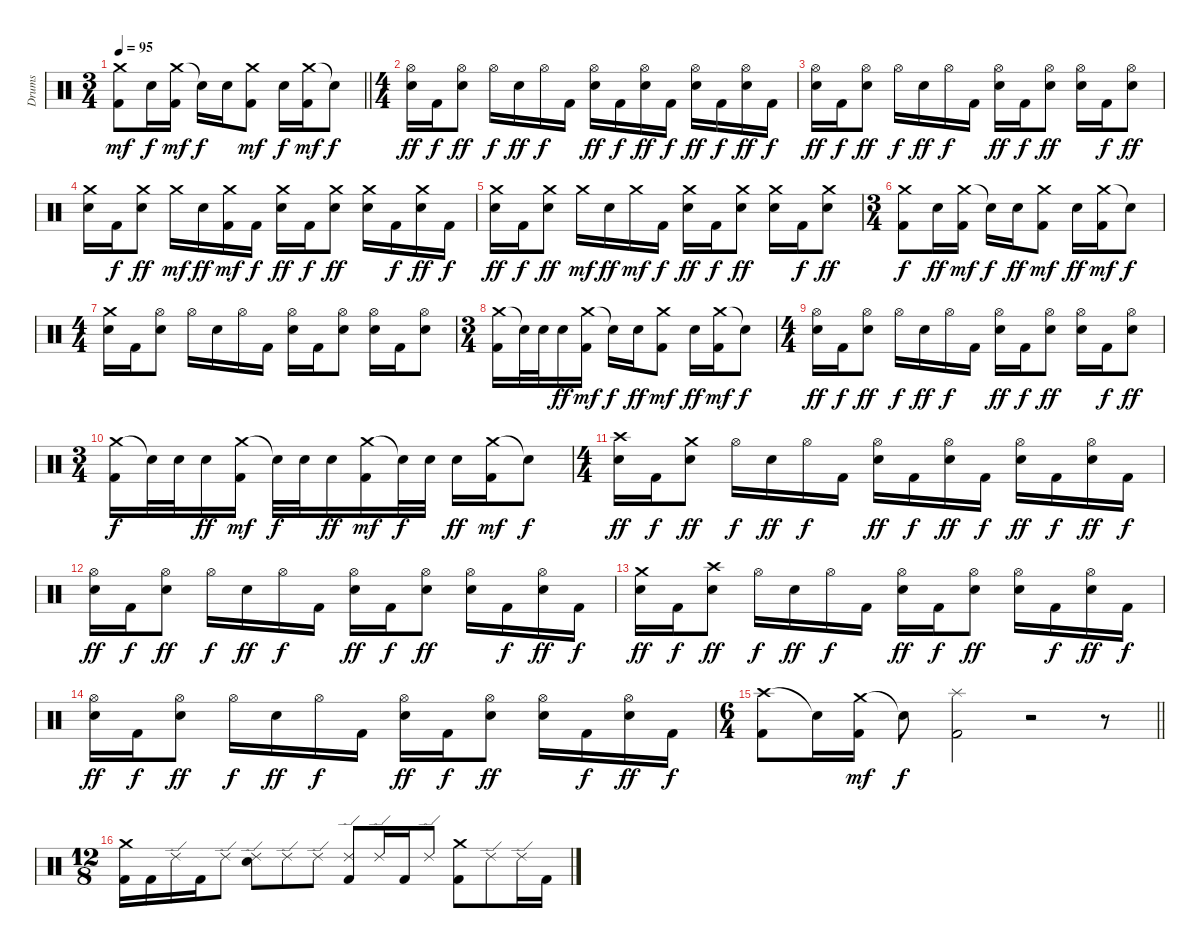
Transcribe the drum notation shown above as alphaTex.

\track ("Drums" "Drums") {instrument percussion}
\staff {score}
\articulation defaults
\ts (3 4)
\tempo 95
\clef neutral
\barLineRight lightlight
\ks c
("Crash medium (hit)" "Kick (hit) 2").8{dy mf} "Snare (hit) 2".16{dy f} ("Crash medium (hit)" "Kick (hit) 2").16{dy mf} "Snare (hit)"{t}.16{dy f} "Snare (hit) 2".16 ("Crash medium (hit)" "Kick (hit) 2").8{dy mf} "Snare (hit) 2".16{dy f} ("Crash medium (hit)" "Kick (hit) 2").16{dy mf} "Snare (hit)"{t}.8{dy f} |
\ts (4 4)
\section ("" "")
("Hi-Hat (open)" "Snare (hit) 2").16{dy ff} "Kick (hit) 2".16{dy f} ("Hi-Hat (open)" "Snare (hit) 2").8{dy ff} "Hi-Hat (open)".16{dy f} "Snare (hit) 2".16{dy ff} "Hi-Hat (open)".16{dy f} "Kick (hit) 2".16 ("Hi-Hat (open)" "Snare (hit) 2").16{dy ff} "Kick (hit) 2".16{dy f} ("Hi-Hat (open)" "Snare (hit) 2").16{dy ff} "Kick (hit) 2".16{dy f} ("Hi-Hat (open)" "Snare (hit) 2").16{dy ff} "Kick (hit) 2".16{dy f} ("Hi-Hat (open)" "Snare (hit) 2").16{dy ff} "Kick (hit) 2".16{dy f} |
("Hi-Hat (open)" "Snare (hit) 2").16{dy ff} "Kick (hit) 2".16{dy f} ("Hi-Hat (open)" "Snare (hit) 2").8{dy ff} "Hi-Hat (open)".16{dy f} "Snare (hit) 2".16{dy ff} "Hi-Hat (open)".16{dy f} "Kick (hit) 2".16 ("Hi-Hat (open)" "Snare (hit) 2").16{dy ff} "Kick (hit) 2".16{dy f} ("Hi-Hat (open)" "Snare (hit) 2").8{dy ff} ("Hi-Hat (open)" "Snare (hit) 2").16 "Kick (hit) 2".16{dy f} ("Hi-Hat (open)" "Snare (hit) 2").8{dy ff} |
("Crash medium (hit)" "Snare (hit) 2").16 "Kick (hit) 2".16{dy f} ("Crash medium (hit)" "Snare (hit) 2").8{dy ff} "Crash medium (hit)".16{dy mf} "Snare (hit) 2".16{dy ff} ("Crash medium (hit)" "Kick (hit) 2").16{dy mf} "Kick (hit) 2".16{dy f} ("Crash medium (hit)" "Snare (hit) 2").16{dy ff} "Kick (hit) 2".16{dy f} ("Crash medium (hit)" "Snare (hit) 2").8{dy ff} ("Crash medium (hit)" "Snare (hit) 2").16 "Kick (hit) 2".16{dy f} ("Crash medium (hit)" "Snare (hit) 2").16{dy ff} "Kick (hit) 2".16{dy f} |
("Crash medium (hit)" "Snare (hit) 2").16{dy ff} "Kick (hit) 2".16{dy f} ("Crash medium (hit)" "Snare (hit) 2").8{dy ff} "Crash medium (hit)".16{dy mf} "Snare (hit) 2".16{dy ff} "Crash medium (hit)".16{dy mf} "Kick (hit) 2".16{dy f} ("Crash medium (hit)" "Snare (hit) 2").16{dy ff} "Kick (hit) 2".16{dy f} ("Crash medium (hit)" "Snare (hit) 2").8{dy ff} ("Crash medium (hit)" "Snare (hit) 2").16 "Kick (hit) 2".16{dy f} ("Crash medium (hit)" "Snare (hit) 2").8{dy ff} |
\ts (3 4)
("Crash medium (hit)" "Kick (hit) 2").8{dy f} "Snare (hit) 2".16{dy ff} ("Crash medium (hit)" "Kick (hit) 2").16{dy mf} "Snare (hit)"{t}.16{dy f} "Snare (hit) 2".16{dy ff} ("Crash medium (hit)" "Kick (hit) 2").8{dy mf} "Snare (hit) 2".16{dy ff} ("Crash medium (hit)" "Kick (hit) 2").16{dy mf} "Snare (hit)"{t}.8{dy f} |
\ts (4 4)
("Crash medium (hit)" "Snare (hit) 2").16 "Kick (hit) 2".16 ("Hi-Hat (open)" "Snare (hit) 2").8 "Hi-Hat (open)".16 "Snare (hit) 2".16 "Hi-Hat (open)".16 "Kick (hit) 2".16 ("Hi-Hat (open)" "Snare (hit) 2").16 "Kick (hit) 2".16 ("Hi-Hat (open)" "Snare (hit) 2").8 ("Hi-Hat (open)" "Snare (hit) 2").16 "Kick (hit) 2".16 ("Hi-Hat (open)" "Snare (hit) 2").8 |
\ts (3 4)
("Crash medium (hit)" "Kick (hit) 2").16 "Snare (hit)"{t}.32 "Snare (hit) 2".32 "Snare (hit) 2".16{dy ff} ("Crash medium (hit)" "Kick (hit) 2").16{dy mf} "Snare (hit)"{t}.16{dy f} "Snare (hit) 2".16{dy ff} ("Crash medium (hit)" "Kick (hit) 2").8{dy mf} "Snare (hit) 2".16{dy ff} ("Crash medium (hit)" "Kick (hit) 2").16{dy mf} "Snare (hit)"{t}.8{dy f} |
\ts (4 4)
("Hi-Hat (open)" "Snare (hit) 2").16{dy ff} "Kick (hit) 2".16{dy f} ("Hi-Hat (open)" "Snare (hit) 2").8{dy ff} "Hi-Hat (open)".16{dy f} "Snare (hit) 2".16{dy ff} "Hi-Hat (open)".16{dy f} "Kick (hit) 2".16 ("Hi-Hat (open)" "Snare (hit) 2").16{dy ff} "Kick (hit) 2".16{dy f} ("Hi-Hat (open)" "Snare (hit) 2").8{dy ff} ("Hi-Hat (open)" "Snare (hit) 2").16 "Kick (hit) 2".16{dy f} ("Hi-Hat (open)" "Snare (hit) 2").8{dy ff} |
\ts (3 4)
("Crash medium (hit)" "Kick (hit) 2").16{dy f} "Snare (hit)"{t}.32 "Snare (hit) 2".32 "Snare (hit) 2".16{dy ff} ("Crash medium (hit)" "Kick (hit) 2").16{dy mf} "Snare (hit)"{t}.32{dy f} "Snare (hit) 2".32 "Snare (hit) 2".16{dy ff} ("Crash medium (hit)" "Kick (hit) 2").16{dy mf} "Snare (hit)"{t}.32{dy f} "Snare (hit) 2".32 "Snare (hit) 2".16{dy ff} ("Crash medium (hit)" "Kick (hit) 2").16{dy mf} "Snare (hit)"{t}.8{dy f} |
\ts (4 4)
("Crash high (hit)" "Snare (hit) 2").16{dy ff} "Kick (hit) 2".16{dy f} ("Crash medium (hit)" "Snare (hit) 2").8{dy ff} "Hi-Hat (open)".16{dy f} "Snare (hit) 2".16{dy ff} "Hi-Hat (open)".16{dy f} "Kick (hit) 2".16 ("Hi-Hat (open)" "Snare (hit) 2").16{dy ff} "Kick (hit) 2".16{dy f} ("Hi-Hat (open)" "Snare (hit) 2").16{dy ff} "Kick (hit) 2".16{dy f} ("Hi-Hat (open)" "Snare (hit) 2").16{dy ff} "Kick (hit) 2".16{dy f} ("Hi-Hat (open)" "Snare (hit) 2").16{dy ff} "Kick (hit) 2".16{dy f} |
("Hi-Hat (open)" "Snare (hit) 2").16{dy ff} "Kick (hit) 2".16{dy f} ("Hi-Hat (open)" "Snare (hit) 2").8{dy ff} "Hi-Hat (open)".16{dy f} "Snare (hit) 2".16{dy ff} "Hi-Hat (open)".16{dy f} "Kick (hit) 2".16 ("Hi-Hat (open)" "Snare (hit) 2").16{dy ff} "Kick (hit) 2".16{dy f} ("Hi-Hat (open)" "Snare (hit) 2").8{dy ff} ("Hi-Hat (open)" "Snare (hit) 2").16 "Kick (hit) 2".16{dy f} ("Hi-Hat (open)" "Snare (hit) 2").16{dy ff} "Kick (hit) 2".16{dy f} |
("Crash medium (hit)" "Snare (hit) 2").16{dy ff} "Kick (hit) 2".16{dy f} ("Crash high (hit)" "Snare (hit) 2").8{dy ff} "Hi-Hat (open)".16{dy f} "Snare (hit) 2".16{dy ff} "Hi-Hat (open)".16{dy f} "Kick (hit) 2".16 ("Hi-Hat (open)" "Snare (hit) 2").16{dy ff} "Kick (hit) 2".16{dy f} ("Hi-Hat (open)" "Snare (hit) 2").8{dy ff} ("Hi-Hat (open)" "Snare (hit) 2").16 "Kick (hit) 2".16{dy f} ("Hi-Hat (open)" "Snare (hit) 2").16{dy ff} "Kick (hit) 2".16{dy f} |
("Hi-Hat (open)" "Snare (hit) 2").16{dy ff} "Kick (hit) 2".16{dy f} ("Hi-Hat (open)" "Snare (hit) 2").8{dy ff} "Hi-Hat (open)".16{dy f} "Snare (hit) 2".16{dy ff} "Hi-Hat (open)".16{dy f} "Kick (hit) 2".16 ("Hi-Hat (open)" "Snare (hit) 2").16{dy ff} "Kick (hit) 2".16{dy f} ("Hi-Hat (open)" "Snare (hit) 2").8{dy ff} ("Hi-Hat (open)" "Snare (hit) 2").16 "Kick (hit) 2".16{dy f} ("Hi-Hat (open)" "Snare (hit) 2").16{dy ff} "Kick (hit) 2".16{dy f} |
\ts (6 4)
\barLineRight lightlight
("Crash high (hit)" "Kick (hit) 2").8 "Snare (hit)"{t}.16 ("Crash medium (hit)" "Kick (hit) 2").16{dy mf} "Snare (hit)"{t}.8{dy f} ("Splash (hit)" "Kick (hit) 2").2 r.2 r.8 |
\ts (12 8)
\section ("" "")
("Crash medium (hit)" "Kick (hit) 2").16 "Kick (hit) 2".16 "Ride (edge) 2".16 "Kick (hit) 2".16 "Ride (edge) 2".8 ("Ride (edge) 2" "Snare (hit) 2").8 "Ride (edge) 2".8 "Ride (edge) 2".8 ("Ride (edge) 2" "Kick (hit) 2").8 "Ride (edge) 2".16 "Kick (hit) 2".16 "Ride (edge) 2".8 ("Crash medium (hit)" "Kick (hit) 2").8 "Ride (edge) 2".8 "Ride (edge) 2".16 "Kick (hit) 2".16
